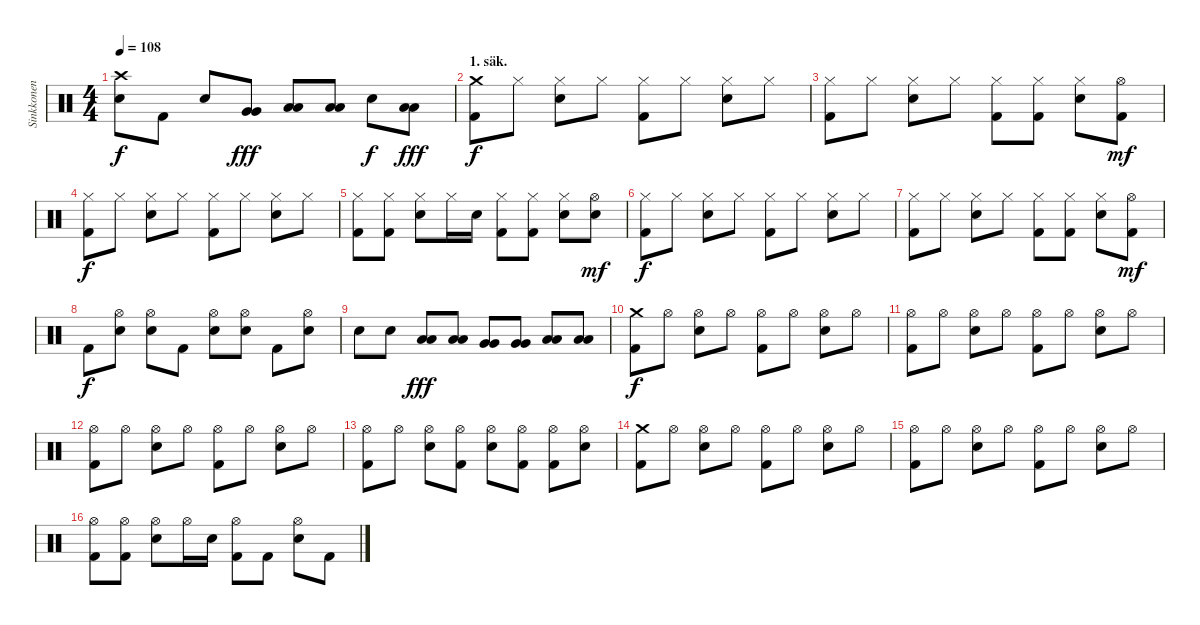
\track ("Sinkkonen" "Sinkkonen") {instrument percussion}
\staff {score}
\articulation defaults
\ts (4 4)
\tempo 108
\clef neutral
\ks c
("Crash high (hit)" "Snare (hit) 2").8{dy f} "Kick (hit) 2".8 "Snare (hit) 2".8 ("Very Low Tom (hit)" "Very Low Tom (hit)").8{dy fff} ("Low Floor Tom (hit)" "Low Floor Tom (hit)").8 ("Low Floor Tom (hit)" "Low Floor Tom (hit)").8 "Snare (hit) 2".8{dy f} ("Low Floor Tom (hit)" "Low Floor Tom (hit)").8{dy fff} |
\section ("" "1. säk.")
("Kick (hit) 2" "Crash medium (hit)").8{dy f} "Hi-Hat (closed)".8 ("Hi-Hat (closed)" "Snare (hit) 2").8 "Hi-Hat (closed)".8 ("Kick (hit) 2" "Hi-Hat (closed)").8 "Hi-Hat (closed)".8 ("Hi-Hat (closed)" "Snare (hit) 2").8 "Hi-Hat (closed)".8 |
("Kick (hit) 2" "Hi-Hat (closed)").8 "Hi-Hat (closed)".8 ("Hi-Hat (closed)" "Snare (hit) 2").8 "Hi-Hat (closed)".8 ("Kick (hit) 2" "Hi-Hat (closed)").8 ("Kick (hit) 2" "Hi-Hat (closed)").8 ("Hi-Hat (closed)" "Snare (hit) 2").8 ("Kick (hit) 2" "Hi-Hat (open)").8{dy mf} |
("Kick (hit) 2" "Hi-Hat (closed)").8{dy f} "Hi-Hat (closed)".8 ("Hi-Hat (closed)" "Snare (hit) 2").8 "Hi-Hat (closed)".8 ("Kick (hit) 2" "Hi-Hat (closed)").8 "Hi-Hat (closed)".8 ("Hi-Hat (closed)" "Snare (hit) 2").8 "Hi-Hat (closed)".8 |
("Kick (hit) 2" "Hi-Hat (closed)").8 ("Kick (hit) 2" "Hi-Hat (closed)").8 ("Hi-Hat (closed)" "Snare (hit) 2").8 "Hi-Hat (closed)".16 "Snare (hit) 2".16 ("Kick (hit) 2" "Hi-Hat (closed)").8 ("Kick (hit) 2" "Hi-Hat (closed)").8 ("Hi-Hat (closed)" "Snare (hit) 2").8 ("Hi-Hat (open)" "Snare (hit) 2").8{dy mf} |
("Kick (hit) 2" "Hi-Hat (closed)").8{dy f} "Hi-Hat (closed)".8 ("Hi-Hat (closed)" "Snare (hit) 2").8 "Hi-Hat (closed)".8 ("Kick (hit) 2" "Hi-Hat (closed)").8 "Hi-Hat (closed)".8 ("Hi-Hat (closed)" "Snare (hit) 2").8 "Hi-Hat (closed)".8 |
("Kick (hit) 2" "Hi-Hat (closed)").8 "Hi-Hat (closed)".8 ("Hi-Hat (closed)" "Snare (hit) 2").8 "Hi-Hat (closed)".8 ("Kick (hit) 2" "Hi-Hat (closed)").8 ("Kick (hit) 2" "Hi-Hat (closed)").8 ("Hi-Hat (closed)" "Snare (hit) 2").8 ("Kick (hit) 2" "Hi-Hat (open)").8{dy mf} |
"Kick (hit) 2".8{dy f} ("Hi-Hat (open)" "Snare (hit) 2").8 ("Hi-Hat (open)" "Snare (hit) 2").8 "Kick (hit) 2".8 ("Hi-Hat (open)" "Snare (hit) 2").8 ("Hi-Hat (open)" "Snare (hit) 2").8 "Kick (hit) 2".8 ("Hi-Hat (open)" "Snare (hit) 2").8 |
"Snare (hit) 2".8 "Snare (hit) 2".8 ("Low Tom (hit)" "Low Tom (hit)").8{dy fff} ("Low Tom (hit)" "Low Tom (hit)").8 ("Very Low Tom (hit)" "Very Low Tom (hit)").8 ("Very Low Tom (hit)" "Very Low Tom (hit)").8 ("Low Floor Tom (hit)" "Low Floor Tom (hit)").8 ("Low Floor Tom (hit)" "Low Floor Tom (hit)").8 |
("Kick (hit) 2" "Crash medium (hit)").8{dy f} "Hi-Hat (open)".8 ("Hi-Hat (open)" "Snare (hit) 2").8 "Hi-Hat (open)".8 ("Kick (hit) 2" "Hi-Hat (open)").8 "Hi-Hat (open)".8 ("Hi-Hat (open)" "Snare (hit) 2").8 "Hi-Hat (open)".8 |
("Kick (hit) 2" "Hi-Hat (open)").8 "Hi-Hat (open)".8 ("Hi-Hat (open)" "Snare (hit) 2").8 "Hi-Hat (open)".8 ("Kick (hit) 2" "Hi-Hat (open)").8 "Hi-Hat (open)".8 ("Hi-Hat (open)" "Snare (hit) 2").8 "Hi-Hat (open)".8 |
("Kick (hit) 2" "Hi-Hat (open)").8 "Hi-Hat (open)".8 ("Hi-Hat (open)" "Snare (hit) 2").8 "Hi-Hat (open)".8 ("Kick (hit) 2" "Hi-Hat (open)").8 "Hi-Hat (open)".8 ("Hi-Hat (open)" "Snare (hit) 2").8 "Hi-Hat (open)".8 |
("Kick (hit) 2" "Hi-Hat (open)").8 "Hi-Hat (open)".8 ("Hi-Hat (open)" "Snare (hit) 2").8 ("Kick (hit) 2" "Hi-Hat (open)").8 ("Hi-Hat (open)" "Snare (hit) 2").8 ("Kick (hit) 2" "Hi-Hat (open)").8 ("Kick (hit) 2" "Hi-Hat (open)").8 ("Hi-Hat (open)" "Snare (hit) 2").8 |
("Kick (hit) 2" "Crash medium (hit)").8 "Hi-Hat (open)".8 ("Hi-Hat (open)" "Snare (hit) 2").8 "Hi-Hat (open)".8 ("Kick (hit) 2" "Hi-Hat (open)").8 "Hi-Hat (open)".8 ("Hi-Hat (open)" "Snare (hit) 2").8 "Hi-Hat (open)".8 |
("Kick (hit) 2" "Hi-Hat (open)").8 "Hi-Hat (open)".8 ("Hi-Hat (open)" "Snare (hit) 2").8 "Hi-Hat (open)".8 ("Kick (hit) 2" "Hi-Hat (open)").8 "Hi-Hat (open)".8 ("Hi-Hat (open)" "Snare (hit) 2").8 "Hi-Hat (open)".8 |
("Kick (hit) 2" "Hi-Hat (open)").8 ("Kick (hit) 2" "Hi-Hat (open)").8 ("Hi-Hat (open)" "Snare (hit) 2").8 "Hi-Hat (open)".16 "Snare (hit) 2".16 ("Kick (hit) 2" "Hi-Hat (open)").8 "Kick (hit) 2".8 ("Hi-Hat (open)" "Snare (hit) 2").8 "Kick (hit) 2".8
